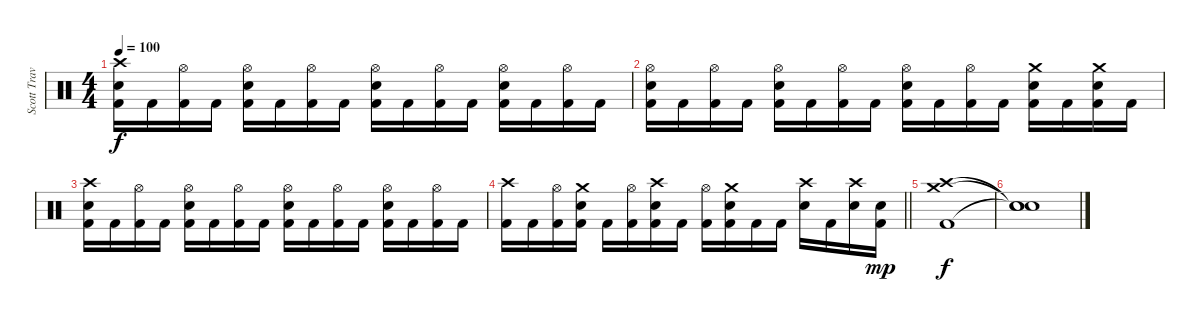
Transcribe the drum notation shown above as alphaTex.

\track ("Scott Travis" "Scott Trav") {instrument percussion}
\staff {score}
\articulation defaults
\ts (4 4)
\tempo 100
\clef neutral
\ks c
("Crash high (hit)" "Snare (hit) 2" "Kick (hit) 2").16{dy f} "Kick (hit) 2".16 ("Hi-Hat (open)" "Kick (hit) 2").16 "Kick (hit) 2".16 ("Hi-Hat (open)" "Snare (hit) 2" "Kick (hit) 2").16 "Kick (hit) 2".16 ("Hi-Hat (open)" "Kick (hit) 2").16 "Kick (hit) 2".16 ("Hi-Hat (open)" "Snare (hit) 2" "Kick (hit) 2").16 "Kick (hit) 2".16 ("Hi-Hat (open)" "Kick (hit) 2").16 "Kick (hit) 2".16 ("Hi-Hat (open)" "Snare (hit) 2" "Kick (hit) 2").16 "Kick (hit) 2".16 ("Hi-Hat (open)" "Kick (hit) 2").16 "Kick (hit) 2".16 |
("Hi-Hat (open)" "Snare (hit) 2" "Kick (hit) 2").16 "Kick (hit) 2".16 ("Hi-Hat (open)" "Kick (hit) 2").16 "Kick (hit) 2".16 ("Hi-Hat (open)" "Snare (hit) 2" "Kick (hit) 2").16 "Kick (hit) 2".16 ("Hi-Hat (open)" "Kick (hit) 2").16 "Kick (hit) 2".16 ("Hi-Hat (open)" "Snare (hit) 2" "Kick (hit) 2").16 "Kick (hit) 2".16 ("Hi-Hat (open)" "Kick (hit) 2").16 "Kick (hit) 2".16 ("Crash medium (hit)" "Snare (hit) 2" "Kick (hit) 2").16 "Kick (hit) 2".16 ("Crash medium (hit)" "Snare (hit) 2" "Kick (hit) 2").16 "Kick (hit) 2".16 |
("Crash high (hit)" "Snare (hit) 2" "Kick (hit) 2").16 "Kick (hit) 2".16 ("Hi-Hat (open)" "Kick (hit) 2").16 "Kick (hit) 2".16 ("Hi-Hat (open)" "Snare (hit) 2" "Kick (hit) 2").16 "Kick (hit) 2".16 ("Hi-Hat (open)" "Kick (hit) 2").16 "Kick (hit) 2".16 ("Hi-Hat (open)" "Snare (hit) 2" "Kick (hit) 2").16 "Kick (hit) 2".16 ("Hi-Hat (open)" "Kick (hit) 2").16 "Kick (hit) 2".16 ("Hi-Hat (open)" "Snare (hit) 2" "Kick (hit) 2").16 "Kick (hit) 2".16 ("Hi-Hat (open)" "Kick (hit) 2").16 "Kick (hit) 2".16 |
\barLineRight lightlight
("Crash high (hit)" "Kick (hit) 2").16 "Kick (hit) 2".16 ("Hi-Hat (open)" "Kick (hit) 2").16 ("Crash medium (hit)" "Snare (hit) 2" "Kick (hit) 2").16 "Kick (hit) 2".16 ("Hi-Hat (open)" "Kick (hit) 2").16 ("Crash high (hit)" "Snare (hit) 2" "Kick (hit) 2").16 "Kick (hit) 2".16 ("Hi-Hat (open)" "Kick (hit) 2").16 ("Crash medium (hit)" "Snare (hit) 2" "Kick (hit) 2").16 "Kick (hit) 2".16 "Kick (hit) 2".16 ("Crash high (hit)" "Snare (hit) 2").16 "Kick (hit) 2".16 ("Crash high (hit)" "Snare (hit) 2").16 ("Snare (hit) 2" "Kick (hit) 2").16{dy mp} |
("Crash high (hit)" "Crash medium (hit)" "Kick (hit) 2").1{dy f} |
("Snare (hit)"{t} "Snare (hit)"{t} "Snare (hit)"{t}).1
